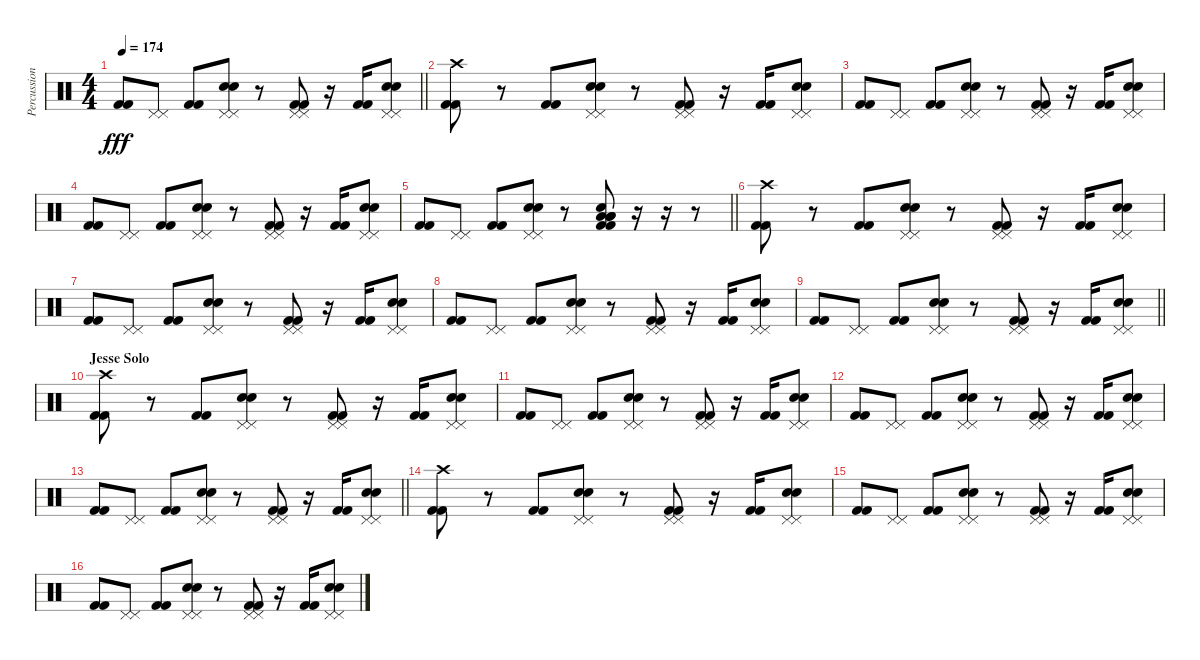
\track ("Percussion" "Percussion") {instrument percussion}
\staff {score}
\articulation defaults
\ts (4 4)
\tempo 174
\clef neutral
\barLineRight lightlight
\ks c
("Kick (hit) 2" "Kick (hit) 2").8{dy fff} ("Pedal Hi-Hat (hit)" "Pedal Hi-Hat (hit)").8 ("Kick (hit) 2" "Kick (hit) 2").8 ("Pedal Hi-Hat (hit)" "Pedal Hi-Hat (hit)" "Electric Snare (hit)" "Electric Snare (hit)").8 r.8 ("Pedal Hi-Hat (hit)" "Pedal Hi-Hat (hit)" "Kick (hit) 2" "Kick (hit) 2").8 r.16 ("Kick (hit) 2" "Kick (hit) 2").16 ("Pedal Hi-Hat (hit)" "Pedal Hi-Hat (hit)" "Electric Snare (hit)" "Electric Snare (hit)").8 |
("Crash high (hit)" "Kick (hit) 2" "Kick (hit) 2").8 r.8 ("Kick (hit) 2" "Kick (hit) 2").8 ("Pedal Hi-Hat (hit)" "Pedal Hi-Hat (hit)" "Electric Snare (hit)" "Electric Snare (hit)").8 r.8 ("Pedal Hi-Hat (hit)" "Pedal Hi-Hat (hit)" "Kick (hit) 2" "Kick (hit) 2").8 r.16 ("Kick (hit) 2" "Kick (hit) 2").16 ("Pedal Hi-Hat (hit)" "Pedal Hi-Hat (hit)" "Electric Snare (hit)" "Electric Snare (hit)").8 |
("Kick (hit) 2" "Kick (hit) 2").8 ("Pedal Hi-Hat (hit)" "Pedal Hi-Hat (hit)").8 ("Kick (hit) 2" "Kick (hit) 2").8 ("Pedal Hi-Hat (hit)" "Pedal Hi-Hat (hit)" "Electric Snare (hit)" "Electric Snare (hit)").8 r.8 ("Pedal Hi-Hat (hit)" "Pedal Hi-Hat (hit)" "Kick (hit) 2" "Kick (hit) 2").8 r.16 ("Kick (hit) 2" "Kick (hit) 2").16 ("Pedal Hi-Hat (hit)" "Pedal Hi-Hat (hit)" "Electric Snare (hit)" "Electric Snare (hit)").8 |
("Kick (hit) 2" "Kick (hit) 2").8 ("Pedal Hi-Hat (hit)" "Pedal Hi-Hat (hit)").8 ("Kick (hit) 2" "Kick (hit) 2").8 ("Pedal Hi-Hat (hit)" "Pedal Hi-Hat (hit)" "Electric Snare (hit)" "Electric Snare (hit)").8 r.8 ("Pedal Hi-Hat (hit)" "Pedal Hi-Hat (hit)" "Kick (hit) 2" "Kick (hit) 2").8 r.16 ("Kick (hit) 2" "Kick (hit) 2").16 ("Pedal Hi-Hat (hit)" "Pedal Hi-Hat (hit)" "Electric Snare (hit)" "Electric Snare (hit)").8 |
\barLineRight lightlight
("Kick (hit) 2" "Kick (hit) 2").8 ("Pedal Hi-Hat (hit)" "Pedal Hi-Hat (hit)").8 ("Kick (hit) 2" "Kick (hit) 2").8 ("Pedal Hi-Hat (hit)" "Pedal Hi-Hat (hit)" "Electric Snare (hit)" "Electric Snare (hit)").8 r.8 ("Low Floor Tom (hit)" "Low Floor Tom (hit)" "Low Floor Tom (hit)" "Electric Snare (hit)" "Kick (hit) 2" "Kick (hit) 2").8 r.16 r.16 r.8 |
\section ("" "")
("Crash high (hit)" "Kick (hit) 2" "Kick (hit) 2").8 r.8 ("Kick (hit) 2" "Kick (hit) 2").8 ("Pedal Hi-Hat (hit)" "Pedal Hi-Hat (hit)" "Electric Snare (hit)" "Electric Snare (hit)").8 r.8 ("Pedal Hi-Hat (hit)" "Pedal Hi-Hat (hit)" "Kick (hit) 2" "Kick (hit) 2").8 r.16 ("Kick (hit) 2" "Kick (hit) 2").16 ("Pedal Hi-Hat (hit)" "Pedal Hi-Hat (hit)" "Electric Snare (hit)" "Electric Snare (hit)").8 |
("Kick (hit) 2" "Kick (hit) 2").8 ("Pedal Hi-Hat (hit)" "Pedal Hi-Hat (hit)").8 ("Kick (hit) 2" "Kick (hit) 2").8 ("Pedal Hi-Hat (hit)" "Pedal Hi-Hat (hit)" "Electric Snare (hit)" "Electric Snare (hit)").8 r.8 ("Pedal Hi-Hat (hit)" "Pedal Hi-Hat (hit)" "Kick (hit) 2" "Kick (hit) 2").8 r.16 ("Kick (hit) 2" "Kick (hit) 2").16 ("Pedal Hi-Hat (hit)" "Pedal Hi-Hat (hit)" "Electric Snare (hit)" "Electric Snare (hit)").8 |
("Kick (hit) 2" "Kick (hit) 2").8 ("Pedal Hi-Hat (hit)" "Pedal Hi-Hat (hit)").8 ("Kick (hit) 2" "Kick (hit) 2").8 ("Pedal Hi-Hat (hit)" "Pedal Hi-Hat (hit)" "Electric Snare (hit)" "Electric Snare (hit)").8 r.8 ("Pedal Hi-Hat (hit)" "Pedal Hi-Hat (hit)" "Kick (hit) 2" "Kick (hit) 2").8 r.16 ("Kick (hit) 2" "Kick (hit) 2").16 ("Pedal Hi-Hat (hit)" "Pedal Hi-Hat (hit)" "Electric Snare (hit)" "Electric Snare (hit)").8 |
\barLineRight lightlight
("Kick (hit) 2" "Kick (hit) 2").8 ("Pedal Hi-Hat (hit)" "Pedal Hi-Hat (hit)").8 ("Kick (hit) 2" "Kick (hit) 2").8 ("Pedal Hi-Hat (hit)" "Pedal Hi-Hat (hit)" "Electric Snare (hit)" "Electric Snare (hit)").8 r.8 ("Pedal Hi-Hat (hit)" "Pedal Hi-Hat (hit)" "Kick (hit) 2" "Kick (hit) 2").8 r.16 ("Kick (hit) 2" "Kick (hit) 2").16 ("Pedal Hi-Hat (hit)" "Pedal Hi-Hat (hit)" "Electric Snare (hit)" "Electric Snare (hit)").8 |
\section ("" "Jesse Solo")
("Crash high (hit)" "Kick (hit) 2" "Kick (hit) 2").8 r.8 ("Kick (hit) 2" "Kick (hit) 2").8 ("Pedal Hi-Hat (hit)" "Pedal Hi-Hat (hit)" "Electric Snare (hit)" "Electric Snare (hit)").8 r.8 ("Pedal Hi-Hat (hit)" "Pedal Hi-Hat (hit)" "Kick (hit) 2" "Kick (hit) 2").8 r.16 ("Kick (hit) 2" "Kick (hit) 2").16 ("Pedal Hi-Hat (hit)" "Pedal Hi-Hat (hit)" "Electric Snare (hit)" "Electric Snare (hit)").8 |
("Kick (hit) 2" "Kick (hit) 2").8 ("Pedal Hi-Hat (hit)" "Pedal Hi-Hat (hit)").8 ("Kick (hit) 2" "Kick (hit) 2").8 ("Pedal Hi-Hat (hit)" "Pedal Hi-Hat (hit)" "Electric Snare (hit)" "Electric Snare (hit)").8 r.8 ("Pedal Hi-Hat (hit)" "Pedal Hi-Hat (hit)" "Kick (hit) 2" "Kick (hit) 2").8 r.16 ("Kick (hit) 2" "Kick (hit) 2").16 ("Pedal Hi-Hat (hit)" "Pedal Hi-Hat (hit)" "Electric Snare (hit)" "Electric Snare (hit)").8 |
("Kick (hit) 2" "Kick (hit) 2").8 ("Pedal Hi-Hat (hit)" "Pedal Hi-Hat (hit)").8 ("Kick (hit) 2" "Kick (hit) 2").8 ("Pedal Hi-Hat (hit)" "Pedal Hi-Hat (hit)" "Electric Snare (hit)" "Electric Snare (hit)").8 r.8 ("Pedal Hi-Hat (hit)" "Pedal Hi-Hat (hit)" "Kick (hit) 2" "Kick (hit) 2").8 r.16 ("Kick (hit) 2" "Kick (hit) 2").16 ("Pedal Hi-Hat (hit)" "Pedal Hi-Hat (hit)" "Electric Snare (hit)" "Electric Snare (hit)").8 |
\barLineRight lightlight
("Kick (hit) 2" "Kick (hit) 2").8 ("Pedal Hi-Hat (hit)" "Pedal Hi-Hat (hit)").8 ("Kick (hit) 2" "Kick (hit) 2").8 ("Pedal Hi-Hat (hit)" "Pedal Hi-Hat (hit)" "Electric Snare (hit)" "Electric Snare (hit)").8 r.8 ("Pedal Hi-Hat (hit)" "Pedal Hi-Hat (hit)" "Kick (hit) 2" "Kick (hit) 2").8 r.16 ("Kick (hit) 2" "Kick (hit) 2").16 ("Pedal Hi-Hat (hit)" "Pedal Hi-Hat (hit)" "Electric Snare (hit)" "Electric Snare (hit)").8 |
("Crash high (hit)" "Kick (hit) 2" "Kick (hit) 2").8 r.8 ("Kick (hit) 2" "Kick (hit) 2").8 ("Pedal Hi-Hat (hit)" "Pedal Hi-Hat (hit)" "Electric Snare (hit)" "Electric Snare (hit)").8 r.8 ("Pedal Hi-Hat (hit)" "Pedal Hi-Hat (hit)" "Kick (hit) 2" "Kick (hit) 2").8 r.16 ("Kick (hit) 2" "Kick (hit) 2").16 ("Pedal Hi-Hat (hit)" "Pedal Hi-Hat (hit)" "Electric Snare (hit)" "Electric Snare (hit)").8 |
("Kick (hit) 2" "Kick (hit) 2").8 ("Pedal Hi-Hat (hit)" "Pedal Hi-Hat (hit)").8 ("Kick (hit) 2" "Kick (hit) 2").8 ("Pedal Hi-Hat (hit)" "Pedal Hi-Hat (hit)" "Electric Snare (hit)" "Electric Snare (hit)").8 r.8 ("Pedal Hi-Hat (hit)" "Pedal Hi-Hat (hit)" "Kick (hit) 2" "Kick (hit) 2").8 r.16 ("Kick (hit) 2" "Kick (hit) 2").16 ("Pedal Hi-Hat (hit)" "Pedal Hi-Hat (hit)" "Electric Snare (hit)" "Electric Snare (hit)").8 |
("Kick (hit) 2" "Kick (hit) 2").8 ("Pedal Hi-Hat (hit)" "Pedal Hi-Hat (hit)").8 ("Kick (hit) 2" "Kick (hit) 2").8 ("Pedal Hi-Hat (hit)" "Pedal Hi-Hat (hit)" "Electric Snare (hit)" "Electric Snare (hit)").8 r.8 ("Pedal Hi-Hat (hit)" "Pedal Hi-Hat (hit)" "Kick (hit) 2" "Kick (hit) 2").8 r.16 ("Kick (hit) 2" "Kick (hit) 2").16 ("Pedal Hi-Hat (hit)" "Pedal Hi-Hat (hit)" "Electric Snare (hit)" "Electric Snare (hit)").8
